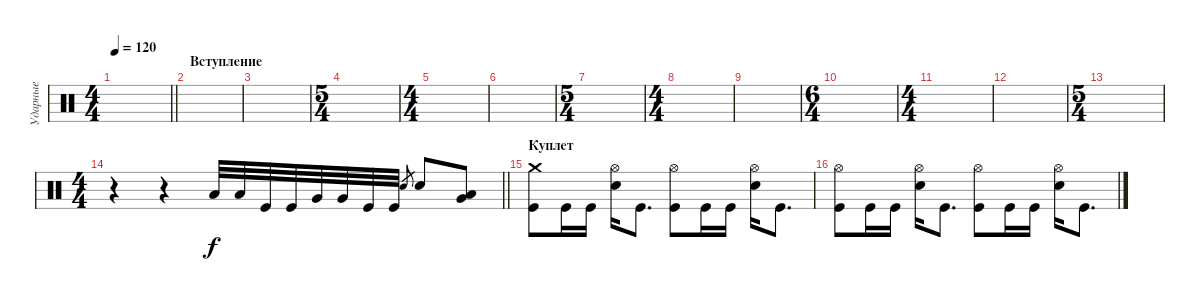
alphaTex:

\track ("Ударные" "Ударные") {instrument percussion}
\staff {score}
\articulation defaults
\ts (4 4)
\tempo 120
\clef neutral
\barLineRight lightlight
\ks c
|
\section ("" "Вступление")
|
|
\ts (5 4)
|
\ts (4 4)
|
|
\ts (5 4)
|
\ts (4 4)
|
|
\ts (6 4)
|
\ts (4 4)
|
|
\ts (5 4)
|
\ts (4 4)
\barLineRight lightlight
r.4 r.4 "Low Tom (hit)".32 "Low Tom (hit)".32 "Kick (hit)".32 "Kick (hit)".32 "Very Low Tom (hit)".32 "Very Low Tom (hit)".32 "Kick (hit)".32 "Kick (hit)".32 "Electric Snare (hit)".8{gr} "Electric Snare (hit)".8 ("Very Low Tom (hit)" "Low Floor Tom (hit)").8 |
\section ("" "Куплет")
("Crash medium (hit)" "Kick (hit)").8 "Kick (hit)".16 "Kick (hit)".16 ("Hi-Hat (open)" "Electric Snare (hit)").16 "Kick (hit)".8{d} ("Hi-Hat (open)" "Kick (hit)").8 "Kick (hit)".16 "Kick (hit)".16 ("Hi-Hat (open)" "Electric Snare (hit)").16 "Kick (hit)".8{d} |
("Hi-Hat (open)" "Kick (hit)").8 "Kick (hit)".16 "Kick (hit)".16 ("Hi-Hat (open)" "Electric Snare (hit)").16 "Kick (hit)".8{d} ("Hi-Hat (open)" "Kick (hit)").8 "Kick (hit)".16 "Kick (hit)".16 ("Hi-Hat (open)" "Electric Snare (hit)").16 "Kick (hit)".8{d}
